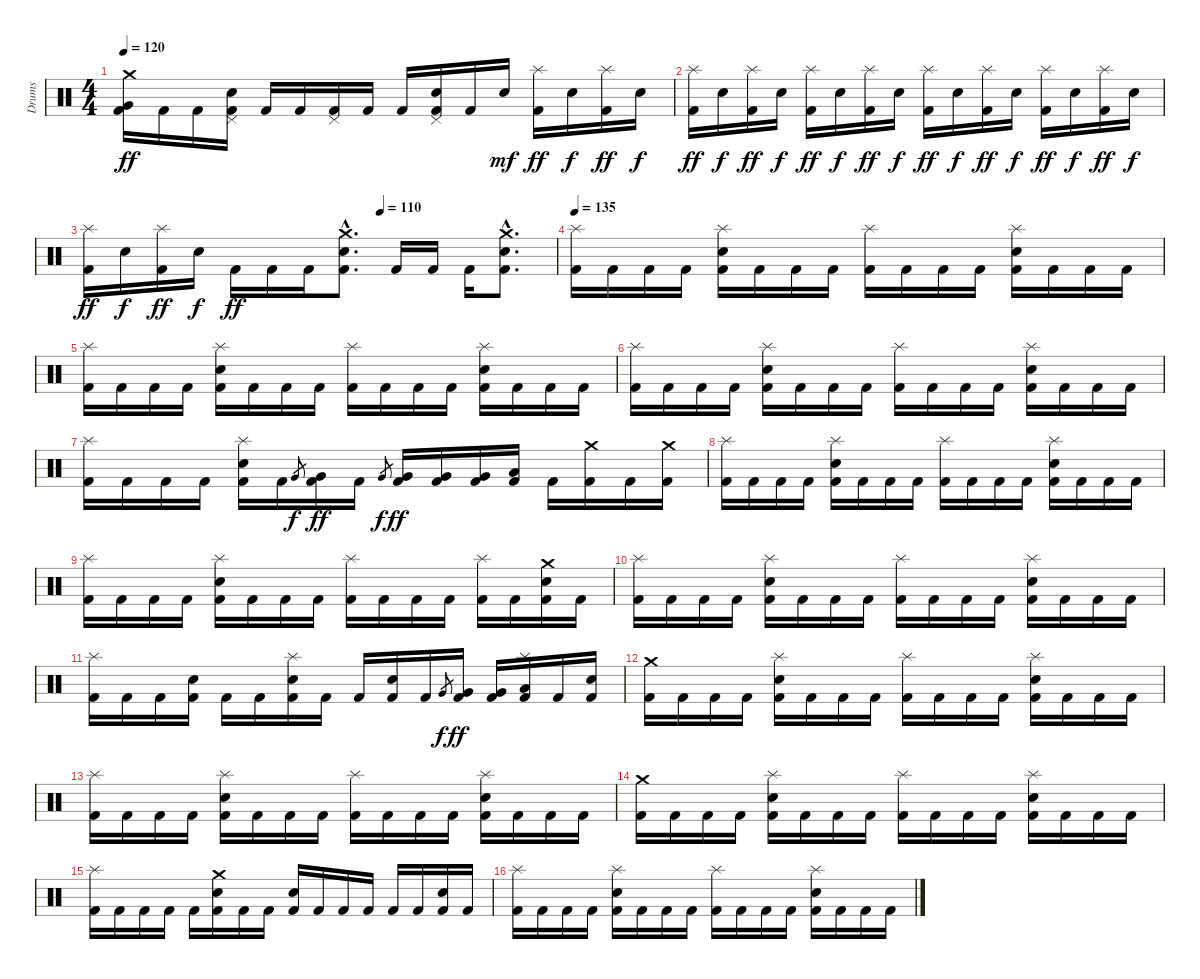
\track ("Drums" "Drums") {instrument percussion}
\staff {score}
\articulation defaults
\ts (4 4)
\tempo 120
\clef neutral
\ks c
("Crash medium (hit)" "Very Low Tom (hit)" "Kick (hit) 2").16{dy ff} "Kick (hit) 2".16 "Kick (hit) 2".16 ("Pedal Hi-Hat (hit)" "Electric Snare (hit)" "Kick (hit) 2").16 "Kick (hit) 2".16 "Kick (hit) 2".16 ("Pedal Hi-Hat (hit)" "Kick (hit) 2").16 "Kick (hit) 2".16 "Kick (hit) 2".16 ("Pedal Hi-Hat (hit)" "Electric Snare (hit)" "Kick (hit) 2").16 "Kick (hit) 2".16 "Electric Snare (hit)".16{dy mf} ("Splash (hit)" "Kick (hit) 2").16{dy ff} "Electric Snare (hit)".16{dy f} ("Splash (hit)" "Kick (hit) 2").16{dy ff} "Electric Snare (hit)".16{dy f} |
("Splash (hit)" "Kick (hit) 2").16{dy ff} "Electric Snare (hit)".16{dy f} ("Splash (hit)" "Kick (hit) 2").16{dy ff} "Electric Snare (hit)".16{dy f} ("Splash (hit)" "Kick (hit) 2").16{dy ff} "Electric Snare (hit)".16{dy f} ("Splash (hit)" "Kick (hit) 2").16{dy ff} "Electric Snare (hit)".16{dy f} ("Splash (hit)" "Kick (hit) 2").16{dy ff} "Electric Snare (hit)".16{dy f} ("Splash (hit)" "Kick (hit) 2").16{dy ff} "Electric Snare (hit)".16{dy f} ("Splash (hit)" "Kick (hit) 2").16{dy ff} "Electric Snare (hit)".16{dy f} ("Splash (hit)" "Kick (hit) 2").16{dy ff} "Electric Snare (hit)".16{dy f} |
\tempo (110 0.625)
("Splash (hit)" "Kick (hit) 2").16{dy ff} "Electric Snare (hit)".16{dy f} ("Splash (hit)" "Kick (hit) 2").16{dy ff} "Electric Snare (hit)".16{dy f} "Kick (hit) 2".16{dy ff} "Kick (hit) 2".16 "Kick (hit) 2".16 ("Crash medium (hit)"{hac} "Electric Snare (hit)"{hac} "Kick (hit) 2"{hac}).8{d} "Kick (hit) 2".16 "Kick (hit) 2".16 "Kick (hit) 2".16 ("Crash medium (hit)"{hac} "Electric Snare (hit)"{hac} "Kick (hit) 2"{hac}).8{d} |
\tempo 135
("Splash (hit)" "Kick (hit) 2").16 "Kick (hit) 2".16 "Kick (hit) 2".16 "Kick (hit) 2".16 ("Splash (hit)" "Electric Snare (hit)" "Kick (hit) 2").16 "Kick (hit) 2".16 "Kick (hit) 2".16 "Kick (hit) 2".16 ("Splash (hit)" "Kick (hit) 2").16 "Kick (hit) 2".16 "Kick (hit) 2".16 "Kick (hit) 2".16 ("Splash (hit)" "Electric Snare (hit)" "Kick (hit) 2").16 "Kick (hit) 2".16 "Kick (hit) 2".16 "Kick (hit) 2".16 |
("Splash (hit)" "Kick (hit) 2").16 "Kick (hit) 2".16 "Kick (hit) 2".16 "Kick (hit) 2".16 ("Splash (hit)" "Electric Snare (hit)" "Kick (hit) 2").16 "Kick (hit) 2".16 "Kick (hit) 2".16 "Kick (hit) 2".16 ("Splash (hit)" "Kick (hit) 2").16 "Kick (hit) 2".16 "Kick (hit) 2".16 "Kick (hit) 2".16 ("Splash (hit)" "Electric Snare (hit)" "Kick (hit) 2").16 "Kick (hit) 2".16 "Kick (hit) 2".16 "Kick (hit) 2".16 |
("Splash (hit)" "Kick (hit) 2").16 "Kick (hit) 2".16 "Kick (hit) 2".16 "Kick (hit) 2".16 ("Splash (hit)" "Electric Snare (hit)" "Kick (hit) 2").16 "Kick (hit) 2".16 "Kick (hit) 2".16 "Kick (hit) 2".16 ("Splash (hit)" "Kick (hit) 2").16 "Kick (hit) 2".16 "Kick (hit) 2".16 "Kick (hit) 2".16 ("Splash (hit)" "Electric Snare (hit)" "Kick (hit) 2").16 "Kick (hit) 2".16 "Kick (hit) 2".16 "Kick (hit) 2".16 |
("Splash (hit)" "Kick (hit) 2").16 "Kick (hit) 2".16 "Kick (hit) 2".16 "Kick (hit) 2".16 ("Splash (hit)" "Electric Snare (hit)" "Kick (hit) 2").16 "Kick (hit) 2".16 "Very Low Tom (hit)".8{gr dy f} ("Very Low Tom (hit)" "Kick (hit) 2").16{dy ff} "Kick (hit) 2".16 "Very Low Tom (hit)".8{gr dy f} ("Very Low Tom (hit)" "Kick (hit) 2").16{dy ff} ("Very Low Tom (hit)" "Kick (hit) 2").16 ("Very Low Tom (hit)" "Kick (hit) 2").16 ("Low Floor Tom (hit)" "Kick (hit) 2").16 "Kick (hit) 2".16 ("Crash medium (hit)" "Kick (hit) 2").16 "Kick (hit) 2".16 ("Crash medium (hit)" "Kick (hit) 2").16 |
("Splash (hit)" "Kick (hit) 2").16 "Kick (hit) 2".16 "Kick (hit) 2".16 "Kick (hit) 2".16 ("Splash (hit)" "Electric Snare (hit)" "Kick (hit) 2").16 "Kick (hit) 2".16 "Kick (hit) 2".16 "Kick (hit) 2".16 ("Splash (hit)" "Kick (hit) 2").16 "Kick (hit) 2".16 "Kick (hit) 2".16 "Kick (hit) 2".16 ("Splash (hit)" "Electric Snare (hit)" "Kick (hit) 2").16 "Kick (hit) 2".16 "Kick (hit) 2".16 "Kick (hit) 2".16 |
("Splash (hit)" "Kick (hit) 2").16 "Kick (hit) 2".16 "Kick (hit) 2".16 "Kick (hit) 2".16 ("Splash (hit)" "Electric Snare (hit)" "Kick (hit) 2").16 "Kick (hit) 2".16 "Kick (hit) 2".16 "Kick (hit) 2".16 ("Splash (hit)" "Kick (hit) 2").16 "Kick (hit) 2".16 "Kick (hit) 2".16 "Kick (hit) 2".16 ("Splash (hit)" "Kick (hit) 2").16 "Kick (hit) 2".16 ("Crash medium (hit)" "Electric Snare (hit)" "Kick (hit) 2").16 "Kick (hit) 2".16 |
("Splash (hit)" "Kick (hit) 2").16 "Kick (hit) 2".16 "Kick (hit) 2".16 "Kick (hit) 2".16 ("Splash (hit)" "Electric Snare (hit)" "Kick (hit) 2").16 "Kick (hit) 2".16 "Kick (hit) 2".16 "Kick (hit) 2".16 ("Splash (hit)" "Kick (hit) 2").16 "Kick (hit) 2".16 "Kick (hit) 2".16 "Kick (hit) 2".16 ("Splash (hit)" "Electric Snare (hit)" "Kick (hit) 2").16 "Kick (hit) 2".16 "Kick (hit) 2".16 "Kick (hit) 2".16 |
("Splash (hit)" "Kick (hit) 2").16 "Kick (hit) 2".16 "Kick (hit) 2".16 ("Electric Snare (hit)" "Kick (hit) 2").16 "Kick (hit) 2".16 "Kick (hit) 2".16 ("Splash (hit)" "Electric Snare (hit)" "Kick (hit) 2").16 "Kick (hit) 2".16 "Kick (hit) 2".16 ("Electric Snare (hit)" "Kick (hit) 2").16 "Kick (hit) 2".16 "Very Low Tom (hit)".8{gr dy f} ("Very Low Tom (hit)" "Kick (hit) 2").16{dy ff} ("Very Low Tom (hit)" "Kick (hit) 2").16 ("Splash (hit)" "Low Floor Tom (hit)" "Kick (hit) 2").16 "Kick (hit) 2".16 ("Electric Snare (hit)" "Kick (hit) 2").16 |
("Crash medium (hit)" "Kick (hit) 2").16 "Kick (hit) 2".16 "Kick (hit) 2".16 "Kick (hit) 2".16 ("Splash (hit)" "Electric Snare (hit)" "Kick (hit) 2").16 "Kick (hit) 2".16 "Kick (hit) 2".16 "Kick (hit) 2".16 ("Splash (hit)" "Kick (hit) 2").16 "Kick (hit) 2".16 "Kick (hit) 2".16 "Kick (hit) 2".16 ("Splash (hit)" "Electric Snare (hit)" "Kick (hit) 2").16 "Kick (hit) 2".16 "Kick (hit) 2".16 "Kick (hit) 2".16 |
("Splash (hit)" "Kick (hit) 2").16 "Kick (hit) 2".16 "Kick (hit) 2".16 "Kick (hit) 2".16 ("Splash (hit)" "Electric Snare (hit)" "Kick (hit) 2").16 "Kick (hit) 2".16 "Kick (hit) 2".16 "Kick (hit) 2".16 ("Splash (hit)" "Kick (hit) 2").16 "Kick (hit) 2".16 "Kick (hit) 2".16 "Kick (hit) 2".16 ("Splash (hit)" "Electric Snare (hit)" "Kick (hit) 2").16 "Kick (hit) 2".16 "Kick (hit) 2".16 "Kick (hit) 2".16 |
("Crash medium (hit)" "Kick (hit) 2").16 "Kick (hit) 2".16 "Kick (hit) 2".16 "Kick (hit) 2".16 ("Splash (hit)" "Electric Snare (hit)" "Kick (hit) 2").16 "Kick (hit) 2".16 "Kick (hit) 2".16 "Kick (hit) 2".16 ("Splash (hit)" "Kick (hit) 2").16 "Kick (hit) 2".16 "Kick (hit) 2".16 "Kick (hit) 2".16 ("Splash (hit)" "Electric Snare (hit)" "Kick (hit) 2").16 "Kick (hit) 2".16 "Kick (hit) 2".16 "Kick (hit) 2".16 |
("Splash (hit)" "Kick (hit) 2").16 "Kick (hit) 2".16 "Kick (hit) 2".16 "Kick (hit) 2".16 "Kick (hit) 2".16 ("Crash medium (hit)" "Electric Snare (hit)" "Kick (hit) 2").16 "Kick (hit) 2".16 "Kick (hit) 2".16 ("Electric Snare (hit)" "Kick (hit) 2").16 "Kick (hit) 2".16 "Kick (hit) 2".16 "Kick (hit) 2".16 "Kick (hit) 2".16 "Kick (hit) 2".16 ("Electric Snare (hit)" "Kick (hit) 2").16 "Kick (hit) 2".16 |
("Splash (hit)" "Kick (hit) 2").16 "Kick (hit) 2".16 "Kick (hit) 2".16 "Kick (hit) 2".16 ("Splash (hit)" "Electric Snare (hit)" "Kick (hit) 2").16 "Kick (hit) 2".16 "Kick (hit) 2".16 "Kick (hit) 2".16 ("Splash (hit)" "Kick (hit) 2").16 "Kick (hit) 2".16 "Kick (hit) 2".16 "Kick (hit) 2".16 ("Splash (hit)" "Electric Snare (hit)" "Kick (hit) 2").16 "Kick (hit) 2".16 "Kick (hit) 2".16 "Kick (hit) 2".16
